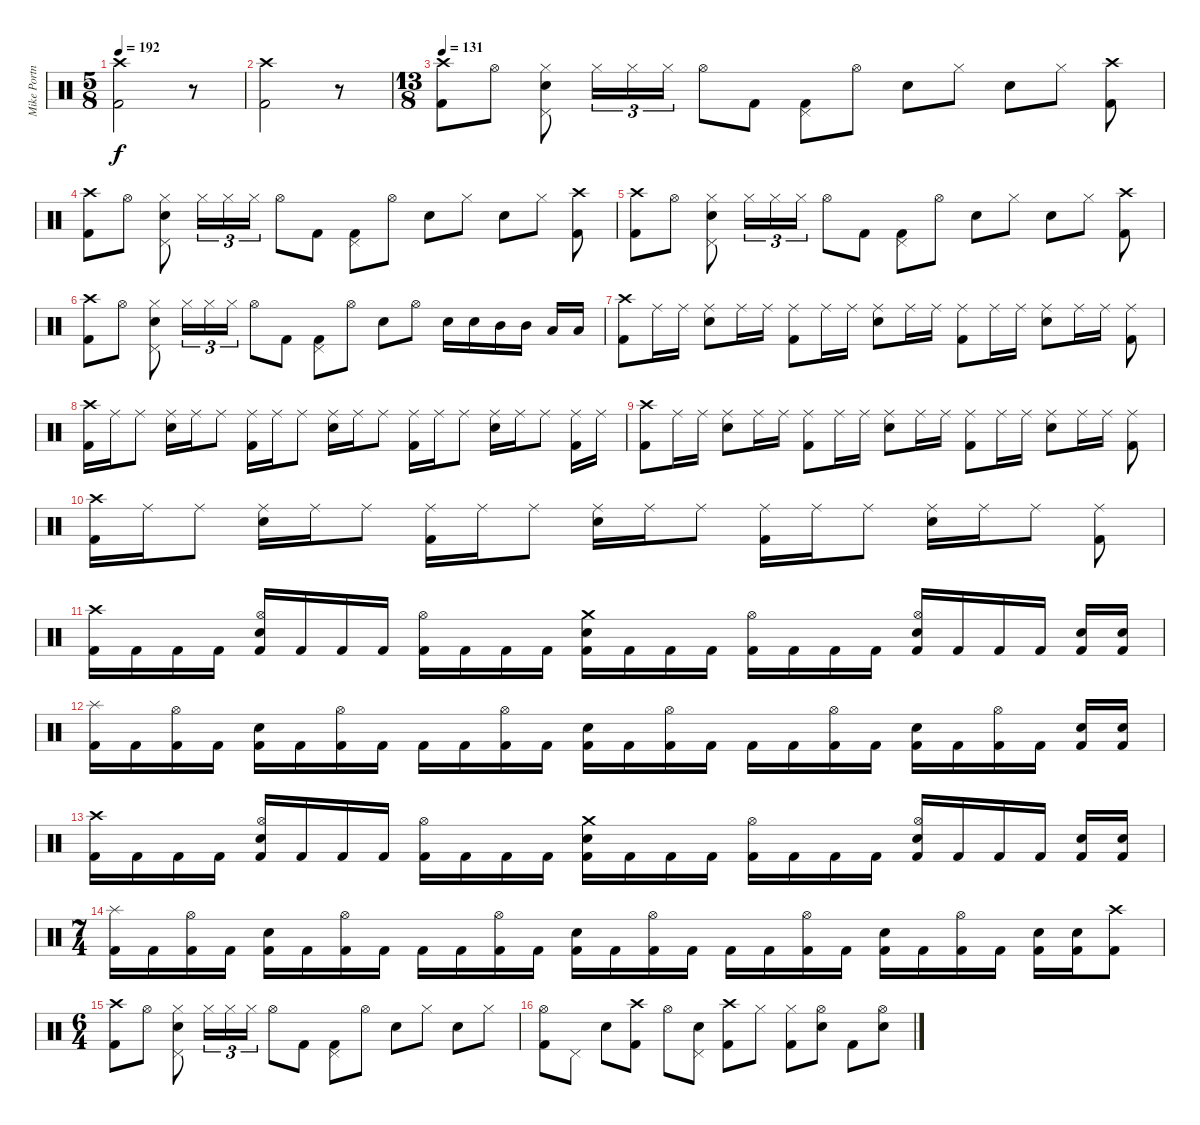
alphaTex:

\track ("Mike Portnoy" "Mike Portn") {instrument percussion}
\staff {score}
\articulation defaults
\ts (5 8)
\tempo 192
\clef neutral
\ks c
("Crash high (hit)" "Kick (hit) 2").2{dy f} r.8 |
("Crash high (hit)" "Kick (hit) 2").2 r.8 |
\ts (13 8)
\tempo 131
("Crash high (hit)" "Kick (hit) 2").8 "Hi-Hat (open)".8 ("Hi-Hat (closed)" "Snare (hit) 2" "Pedal Hi-Hat (hit)").8 "Hi-Hat (closed)".16{tu (3 2)} "Hi-Hat (closed)".16{tu (3 2)} "Hi-Hat (closed)".16{tu (3 2)} "Hi-Hat (open)".8 "Kick (hit) 2".8 ("Pedal Hi-Hat (hit)" "Kick (hit) 2").8 "Hi-Hat (open)".8 "Snare (hit) 2".8 "Hi-Hat (closed)".8 "Snare (hit) 2".8 "Hi-Hat (closed)".8 ("Crash high (hit)" "Kick (hit) 2").8 |
("Crash high (hit)" "Kick (hit) 2").8 "Hi-Hat (open)".8 ("Hi-Hat (closed)" "Snare (hit) 2" "Pedal Hi-Hat (hit)").8 "Hi-Hat (closed)".16{tu (3 2)} "Hi-Hat (closed)".16{tu (3 2)} "Hi-Hat (closed)".16{tu (3 2)} "Hi-Hat (open)".8 "Kick (hit) 2".8 ("Pedal Hi-Hat (hit)" "Kick (hit) 2").8 "Hi-Hat (open)".8 "Snare (hit) 2".8 "Hi-Hat (closed)".8 "Snare (hit) 2".8 "Hi-Hat (closed)".8 ("Crash high (hit)" "Kick (hit) 2").8 |
("Crash high (hit)" "Kick (hit) 2").8 "Hi-Hat (open)".8 ("Hi-Hat (closed)" "Snare (hit) 2" "Pedal Hi-Hat (hit)").8 "Hi-Hat (closed)".16{tu (3 2)} "Hi-Hat (closed)".16{tu (3 2)} "Hi-Hat (closed)".16{tu (3 2)} "Hi-Hat (open)".8 "Kick (hit) 2".8 ("Pedal Hi-Hat (hit)" "Kick (hit) 2").8 "Hi-Hat (open)".8 "Snare (hit) 2".8 "Hi-Hat (closed)".8 "Snare (hit) 2".8 "Hi-Hat (closed)".8 ("Crash high (hit)" "Kick (hit) 2").8 |
("Crash high (hit)" "Kick (hit) 2").8 "Hi-Hat (open)".8 ("Hi-Hat (closed)" "Snare (hit) 2" "Pedal Hi-Hat (hit)").8 "Hi-Hat (closed)".16{tu (3 2)} "Hi-Hat (closed)".16{tu (3 2)} "Hi-Hat (closed)".16{tu (3 2)} "Hi-Hat (open)".8 "Kick (hit) 2".8 ("Pedal Hi-Hat (hit)" "Kick (hit) 2").8 "Hi-Hat (open)".8 "Snare (hit) 2".8 "Hi-Hat (open)".8 "Snare (hit) 2".16 "Snare (hit) 2".16 "Mid Tom (hit)".16 "Mid Tom (hit)".16 "Low Tom (hit)".16 "Low Tom (hit)".16 |
("Crash high (hit)" "Kick (hit) 2").8 "Ride (middle)".16 "Ride (middle)".16 ("Ride (middle)" "Snare (hit) 2").8 "Ride (middle)".16 "Ride (middle)".16 ("Ride (middle)" "Kick (hit) 2").8 "Ride (middle)".16 "Ride (middle)".16 ("Ride (middle)" "Snare (hit) 2").8 "Ride (middle)".16 "Ride (middle)".16 ("Ride (middle)" "Kick (hit) 2").8 "Ride (middle)".16 "Ride (middle)".16 ("Ride (middle)" "Snare (hit) 2").8 "Ride (middle)".16 "Ride (middle)".16 ("Ride (middle)" "Kick (hit) 2").8 |
("Crash high (hit)" "Kick (hit) 2").16 "Ride (middle)".16 "Ride (middle)".8 ("Ride (middle)" "Snare (hit) 2").16 "Ride (middle)".16 "Ride (middle)".8 ("Ride (middle)" "Kick (hit) 2").16 "Ride (middle)".16 "Ride (middle)".8 ("Ride (middle)" "Snare (hit) 2").16 "Ride (middle)".16 "Ride (middle)".8 ("Ride (middle)" "Kick (hit) 2").16 "Ride (middle)".16 "Ride (middle)".8 ("Ride (middle)" "Snare (hit) 2").16 "Ride (middle)".16 "Ride (middle)".8 ("Ride (middle)" "Kick (hit) 2").16 "Ride (middle)".16 |
("Crash high (hit)" "Kick (hit) 2").8 "Ride (middle)".16 "Ride (middle)".16 ("Ride (middle)" "Snare (hit) 2").8 "Ride (middle)".16 "Ride (middle)".16 ("Ride (middle)" "Kick (hit) 2").8 "Ride (middle)".16 "Ride (middle)".16 ("Ride (middle)" "Snare (hit) 2").8 "Ride (middle)".16 "Ride (middle)".16 ("Ride (middle)" "Kick (hit) 2").8 "Ride (middle)".16 "Ride (middle)".16 ("Ride (middle)" "Snare (hit) 2").8 "Ride (middle)".16 "Ride (middle)".16 ("Ride (middle)" "Kick (hit) 2").8 |
("Crash high (hit)" "Kick (hit) 2").16 "Ride (middle)".16 "Ride (middle)".8 ("Ride (middle)" "Snare (hit) 2").16 "Ride (middle)".16 "Ride (middle)".8 ("Ride (middle)" "Kick (hit) 2").16 "Ride (middle)".16 "Ride (middle)".8 ("Ride (middle)" "Snare (hit) 2").16 "Ride (middle)".16 "Ride (middle)".8 ("Ride (middle)" "Kick (hit) 2").16 "Ride (middle)".16 "Ride (middle)".8 ("Ride (middle)" "Snare (hit) 2").16 "Ride (middle)".16 "Ride (middle)".8 ("Ride (middle)" "Kick (hit) 2").8 |
("Crash high (hit)" "Kick (hit) 2").16 "Kick (hit) 2".16 "Kick (hit) 2".16 "Kick (hit) 2".16 ("Hi-Hat (open)" "Snare (hit) 2" "Kick (hit) 2").16 "Kick (hit) 2".16 "Kick (hit) 2".16 "Kick (hit) 2".16 ("Hi-Hat (open)" "Kick (hit) 2").16 "Kick (hit) 2".16 "Kick (hit) 2".16 "Kick (hit) 2".16 ("Crash medium (hit)" "Snare (hit) 2" "Kick (hit) 2").16 "Kick (hit) 2".16 "Kick (hit) 2".16 "Kick (hit) 2".16 ("Hi-Hat (open)" "Kick (hit) 2").16 "Kick (hit) 2".16 "Kick (hit) 2".16 "Kick (hit) 2".16 ("Hi-Hat (open)" "Snare (hit) 2" "Kick (hit) 2").16 "Kick (hit) 2".16 "Kick (hit) 2".16 "Kick (hit) 2".16 ("Snare (hit) 2" "Kick (hit) 2").16 ("Snare (hit) 2" "Kick (hit) 2").16 |
("Splash (hit)" "Kick (hit) 2").16 "Kick (hit) 2".16 ("Hi-Hat (open)" "Kick (hit) 2").16 "Kick (hit) 2".16 ("Snare (hit) 2" "Kick (hit) 2").16 "Kick (hit) 2".16 ("Hi-Hat (open)" "Kick (hit) 2").16 "Kick (hit) 2".16 "Kick (hit) 2".16 "Kick (hit) 2".16 ("Hi-Hat (open)" "Kick (hit) 2").16 "Kick (hit) 2".16 ("Snare (hit) 2" "Kick (hit) 2").16 "Kick (hit) 2".16 ("Hi-Hat (open)" "Kick (hit) 2").16 "Kick (hit) 2".16 "Kick (hit) 2".16 "Kick (hit) 2".16 ("Hi-Hat (open)" "Kick (hit) 2").16 "Kick (hit) 2".16 ("Snare (hit) 2" "Kick (hit) 2").16 "Kick (hit) 2".16 ("Hi-Hat (open)" "Kick (hit) 2").16 "Kick (hit) 2".16 ("Snare (hit) 2" "Kick (hit) 2").16 ("Snare (hit) 2" "Kick (hit) 2").16 |
("Crash high (hit)" "Kick (hit) 2").16 "Kick (hit) 2".16 "Kick (hit) 2".16 "Kick (hit) 2".16 ("Hi-Hat (open)" "Snare (hit) 2" "Kick (hit) 2").16 "Kick (hit) 2".16 "Kick (hit) 2".16 "Kick (hit) 2".16 ("Hi-Hat (open)" "Kick (hit) 2").16 "Kick (hit) 2".16 "Kick (hit) 2".16 "Kick (hit) 2".16 ("Crash medium (hit)" "Snare (hit) 2" "Kick (hit) 2").16 "Kick (hit) 2".16 "Kick (hit) 2".16 "Kick (hit) 2".16 ("Hi-Hat (open)" "Kick (hit) 2").16 "Kick (hit) 2".16 "Kick (hit) 2".16 "Kick (hit) 2".16 ("Hi-Hat (open)" "Snare (hit) 2" "Kick (hit) 2").16 "Kick (hit) 2".16 "Kick (hit) 2".16 "Kick (hit) 2".16 ("Snare (hit) 2" "Kick (hit) 2").16 ("Snare (hit) 2" "Kick (hit) 2").16 |
\ts (7 4)
("Splash (hit)" "Kick (hit) 2").16 "Kick (hit) 2".16 ("Hi-Hat (open)" "Kick (hit) 2").16 "Kick (hit) 2".16 ("Snare (hit) 2" "Kick (hit) 2").16 "Kick (hit) 2".16 ("Hi-Hat (open)" "Kick (hit) 2").16 "Kick (hit) 2".16 "Kick (hit) 2".16 "Kick (hit) 2".16 ("Hi-Hat (open)" "Kick (hit) 2").16 "Kick (hit) 2".16 ("Snare (hit) 2" "Kick (hit) 2").16 "Kick (hit) 2".16 ("Hi-Hat (open)" "Kick (hit) 2").16 "Kick (hit) 2".16 "Kick (hit) 2".16 "Kick (hit) 2".16 ("Hi-Hat (open)" "Kick (hit) 2").16 "Kick (hit) 2".16 ("Snare (hit) 2" "Kick (hit) 2").16 "Kick (hit) 2".16 ("Hi-Hat (open)" "Kick (hit) 2").16 "Kick (hit) 2".16 ("Snare (hit) 2" "Kick (hit) 2").16 ("Snare (hit) 2" "Kick (hit) 2").16 ("Crash high (hit)" "Kick (hit) 2").8 |
\ts (6 4)
("Crash high (hit)" "Kick (hit) 2").8 "Hi-Hat (open)".8 ("Hi-Hat (closed)" "Snare (hit) 2" "Pedal Hi-Hat (hit)").8 "Hi-Hat (closed)".16{tu (3 2)} "Hi-Hat (closed)".16{tu (3 2)} "Hi-Hat (closed)".16{tu (3 2)} "Hi-Hat (open)".8 "Kick (hit) 2".8 ("Pedal Hi-Hat (hit)" "Kick (hit) 2").8 "Hi-Hat (open)".8 "Snare (hit) 2".8 "Hi-Hat (closed)".8 "Snare (hit) 2".8 "Hi-Hat (closed)".8 |
("Hi-Hat (open)" "Kick (hit) 2").8 "Pedal Hi-Hat (hit)".8 "Snare (hit) 2".8 ("Crash high (hit)" "Kick (hit) 2").8 "Hi-Hat (open)".8 ("Snare (hit) 2" "Pedal Hi-Hat (hit)").8 ("Crash high (hit)" "Kick (hit) 2").8 "Hi-Hat (closed)".8 ("Hi-Hat (closed)" "Kick (hit) 2").8 ("Hi-Hat (open)" "Snare (hit) 2").8 "Kick (hit) 2".8 ("Hi-Hat (open)" "Snare (hit) 2").8
